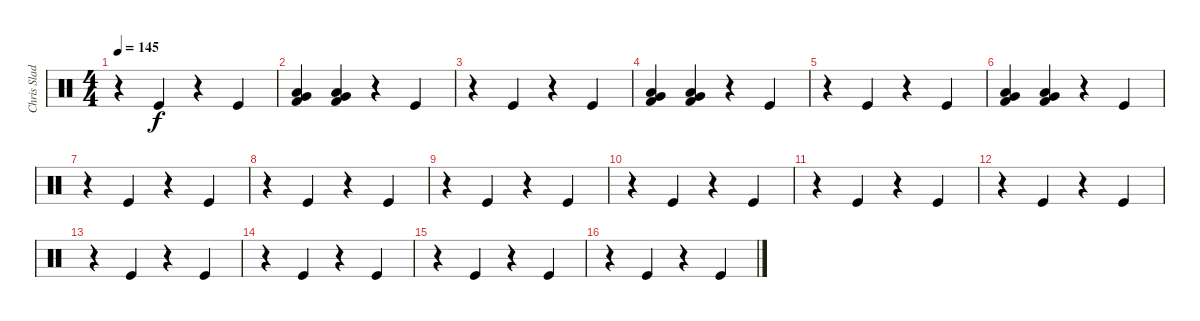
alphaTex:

\track ("Chris Slade" "Chris Slad") {instrument percussion}
\staff {score}
\articulation defaults
\ts (4 4)
\tempo 145
\clef neutral
\ks c
r.4{dy f} "Kick (hit)".4 r.4 "Kick (hit)".4 |
("Low Tom (hit)" "Very Low Tom (hit)" "Kick (hit) 2").4 ("Low Tom (hit)" "Very Low Tom (hit)" "Kick (hit) 2").4 r.4 "Kick (hit)".4 |
r.4 "Kick (hit)".4 r.4 "Kick (hit)".4 |
("Low Tom (hit)" "Very Low Tom (hit)" "Kick (hit) 2").4 ("Low Tom (hit)" "Very Low Tom (hit)" "Kick (hit) 2").4 r.4 "Kick (hit)".4 |
r.4 "Kick (hit)".4 r.4 "Kick (hit)".4 |
("Low Tom (hit)" "Very Low Tom (hit)" "Kick (hit) 2").4 ("Low Tom (hit)" "Very Low Tom (hit)" "Kick (hit) 2").4 r.4 "Kick (hit)".4 |
r.4 "Kick (hit)".4 r.4 "Kick (hit)".4 |
r.4 "Kick (hit)".4 r.4 "Kick (hit)".4 |
r.4 "Kick (hit)".4 r.4 "Kick (hit)".4 |
r.4 "Kick (hit)".4 r.4 "Kick (hit)".4 |
r.4 "Kick (hit)".4 r.4 "Kick (hit)".4 |
r.4 "Kick (hit)".4 r.4 "Kick (hit)".4 |
r.4 "Kick (hit)".4 r.4 "Kick (hit)".4 |
r.4 "Kick (hit)".4 r.4 "Kick (hit)".4 |
r.4 "Kick (hit)".4 r.4 "Kick (hit)".4 |
r.4 "Kick (hit)".4 r.4 "Kick (hit)".4
